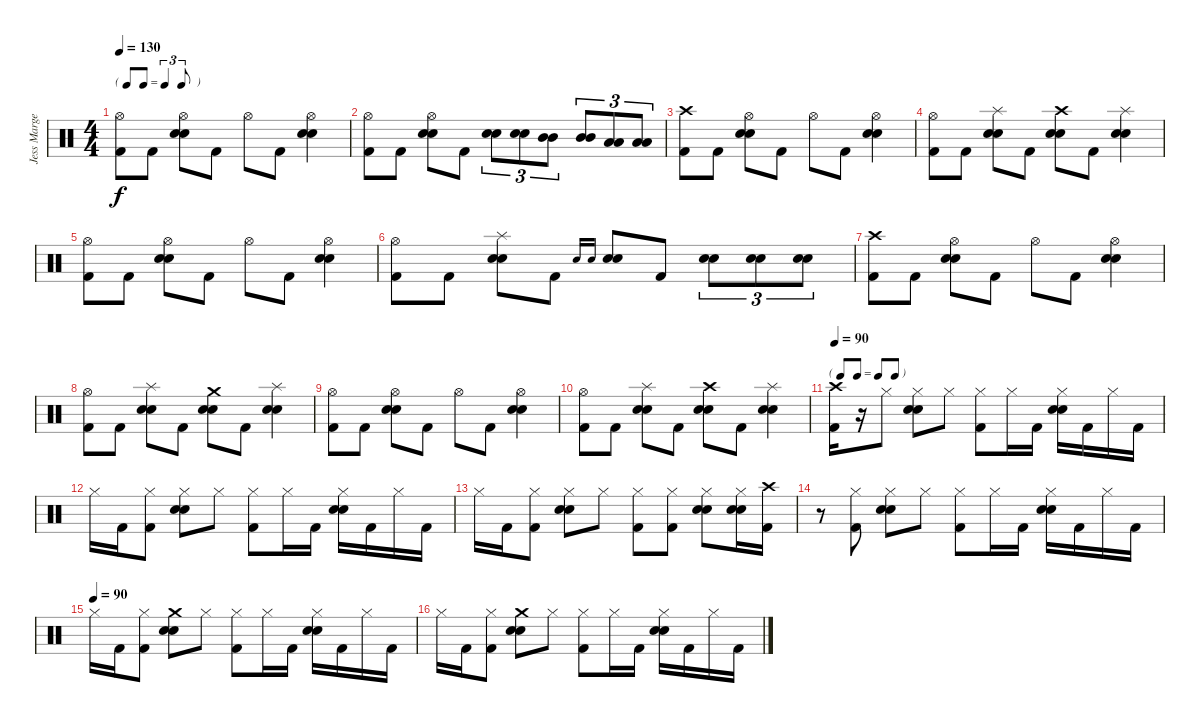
\track ("Jess Margera" "Jess Marge") {instrument percussion}
\staff {score}
\articulation defaults
\ts (4 4)
\tf triplet8th
\tempo 130
\clef neutral
\ks c
("Hi-Hat (open)" "Kick (hit) 2").8{dy f} "Kick (hit) 2".8 ("Snare (hit) 2" "Hi-Hat (open)" "Electric Snare (hit)").8 "Kick (hit) 2".8 "Hi-Hat (open)".8 "Kick (hit) 2".8 ("Hi-Hat (open)" "Snare (hit) 2" "Electric Snare (hit)").4 |
("Hi-Hat (open)" "Kick (hit) 2").8 "Kick (hit) 2".8 ("Hi-Hat (open)" "Snare (hit) 2" "Electric Snare (hit)").8 "Kick (hit) 2".8 ("Snare (hit) 2" "Electric Snare (hit)").8{tu (3 2)} ("Snare (hit) 2" "Electric Snare (hit)").8{tu (3 2)} ("Mid Tom (hit)" "Mid Tom (hit)").8{tu (3 2)} ("Mid Tom (hit)" "Mid Tom (hit)").8{tu (3 2)} ("Low Tom (hit)" "Low Tom (hit)").8{tu (3 2)} ("Low Tom (hit)" "Low Tom (hit)").8{tu (3 2)} |
("Crash high (hit)" "Kick (hit) 2").8 "Kick (hit) 2".8 ("Snare (hit) 2" "Hi-Hat (open)" "Electric Snare (hit)").8 "Kick (hit) 2".8 "Hi-Hat (open)".8 "Kick (hit) 2".8 ("Hi-Hat (open)" "Snare (hit) 2" "Electric Snare (hit)").4 |
("Hi-Hat (open)" "Kick (hit) 2").8 "Kick (hit) 2".8 ("Splash (hit)" "Snare (hit) 2" "Electric Snare (hit)").8 "Kick (hit) 2".8 ("Crash high (hit)" "Snare (hit) 2" "Electric Snare (hit)").8 "Kick (hit) 2".8 ("Splash (hit)" "Snare (hit) 2" "Electric Snare (hit)").4 |
("Hi-Hat (open)" "Kick (hit) 2").8 "Kick (hit) 2".8 ("Snare (hit) 2" "Hi-Hat (open)" "Electric Snare (hit)").8 "Kick (hit) 2".8 "Hi-Hat (open)".8 "Kick (hit) 2".8 ("Hi-Hat (open)" "Snare (hit) 2" "Electric Snare (hit)").4 |
("Hi-Hat (open)" "Kick (hit) 2").8 "Kick (hit) 2".8 ("Splash (hit)" "Snare (hit) 2" "Electric Snare (hit)").8 "Kick (hit) 2".8 "Snare (hit) 2".16{gr onbeat} "Electric Snare (hit)".16{gr onbeat} ("Snare (hit) 2" "Electric Snare (hit)").8 "Kick (hit) 2".8 ("Snare (hit) 2" "Electric Snare (hit)").8{tu (3 2)} ("Snare (hit) 2" "Electric Snare (hit)").8{tu (3 2)} ("Snare (hit) 2" "Electric Snare (hit)").8{tu (3 2)} |
("Crash high (hit)" "Kick (hit) 2").8 "Kick (hit) 2".8 ("Snare (hit) 2" "Hi-Hat (open)" "Electric Snare (hit)").8 "Kick (hit) 2".8 "Hi-Hat (open)".8 "Kick (hit) 2".8 ("Hi-Hat (open)" "Snare (hit) 2" "Electric Snare (hit)").4 |
("Hi-Hat (open)" "Kick (hit) 2").8 "Kick (hit) 2".8 ("Splash (hit)" "Snare (hit) 2" "Electric Snare (hit)").8 "Kick (hit) 2".8 ("Crash medium (hit)" "Snare (hit) 2" "Electric Snare (hit)").8 "Kick (hit) 2".8 ("Splash (hit)" "Snare (hit) 2" "Electric Snare (hit)").4 |
("Hi-Hat (open)" "Kick (hit) 2").8 "Kick (hit) 2".8 ("Snare (hit) 2" "Hi-Hat (open)" "Electric Snare (hit)").8 "Kick (hit) 2".8 "Hi-Hat (open)".8 "Kick (hit) 2".8 ("Hi-Hat (open)" "Snare (hit) 2" "Electric Snare (hit)").4 |
("Hi-Hat (open)" "Kick (hit) 2").8 "Kick (hit) 2".8 ("Splash (hit)" "Snare (hit) 2" "Electric Snare (hit)").8 "Kick (hit) 2".8 ("Crash high (hit)" "Snare (hit) 2" "Electric Snare (hit)").8 "Kick (hit) 2".8 ("Splash (hit)" "Snare (hit) 2" "Electric Snare (hit)").4 |
\tf none
\tempo 90
("Crash high (hit)" "Kick (hit) 2").16 r.16 "Hi-Hat (closed)".8 ("Hi-Hat (closed)" "Snare (hit) 2" "Electric Snare (hit)").8 "Hi-Hat (closed)".8 ("Hi-Hat (closed)" "Kick (hit) 2").8 "Hi-Hat (closed)".16 "Kick (hit) 2".16 ("Hi-Hat (closed)" "Snare (hit) 2" "Electric Snare (hit)").16 "Kick (hit) 2".16 "Hi-Hat (closed)".16 "Kick (hit) 2".16 |
"Hi-Hat (closed)".16 "Kick (hit) 2".16 ("Hi-Hat (closed)" "Kick (hit) 2").8 ("Hi-Hat (closed)" "Snare (hit) 2" "Electric Snare (hit)").8 "Hi-Hat (closed)".8 ("Hi-Hat (closed)" "Kick (hit) 2").8 "Hi-Hat (closed)".16 "Kick (hit) 2".16 ("Hi-Hat (closed)" "Snare (hit) 2" "Electric Snare (hit)").16 "Kick (hit) 2".16 "Hi-Hat (closed)".16 "Kick (hit) 2".16 |
"Hi-Hat (closed)".16 "Kick (hit) 2".16 ("Hi-Hat (closed)" "Kick (hit) 2").8 ("Hi-Hat (closed)" "Snare (hit) 2" "Electric Snare (hit)").8 "Hi-Hat (closed)".8 ("Hi-Hat (closed)" "Kick (hit) 2").8 ("Hi-Hat (closed)" "Kick (hit) 2").8 ("Hi-Hat (closed)" "Snare (hit) 2" "Electric Snare (hit)").8 ("Hi-Hat (closed)" "Snare (hit) 2" "Electric Snare (hit)").16 ("Crash high (hit)" "Kick (hit) 2").16 |
r.8 ("Hi-Hat (closed)" "Kick (hit) 2").8 ("Hi-Hat (closed)" "Snare (hit) 2" "Electric Snare (hit)").8 "Hi-Hat (closed)".8 ("Hi-Hat (closed)" "Kick (hit) 2").8 "Hi-Hat (closed)".16 "Kick (hit) 2".16 ("Hi-Hat (closed)" "Snare (hit) 2" "Electric Snare (hit)").16 "Kick (hit) 2".16 "Hi-Hat (closed)".16 "Kick (hit) 2".16 |
\tempo (90)
"Hi-Hat (closed)".16 "Kick (hit) 2".16 ("Hi-Hat (closed)" "Kick (hit) 2").8 ("Crash medium (hit)" "Snare (hit) 2" "Electric Snare (hit)").8 "Hi-Hat (closed)".8 ("Hi-Hat (closed)" "Kick (hit) 2").8 "Hi-Hat (closed)".16 "Kick (hit) 2".16 ("Hi-Hat (closed)" "Snare (hit) 2" "Electric Snare (hit)").16 "Kick (hit) 2".16 "Hi-Hat (closed)".16 "Kick (hit) 2".16 |
"Hi-Hat (closed)".16 "Kick (hit) 2".16 ("Hi-Hat (closed)" "Kick (hit) 2").8 ("Crash medium (hit)" "Snare (hit) 2" "Electric Snare (hit)").8 "Hi-Hat (closed)".8 ("Hi-Hat (closed)" "Kick (hit) 2").8 "Hi-Hat (closed)".16 "Kick (hit) 2".16 ("Hi-Hat (closed)" "Snare (hit) 2" "Electric Snare (hit)").16 "Kick (hit) 2".16 "Hi-Hat (closed)".16 "Kick (hit) 2".16
